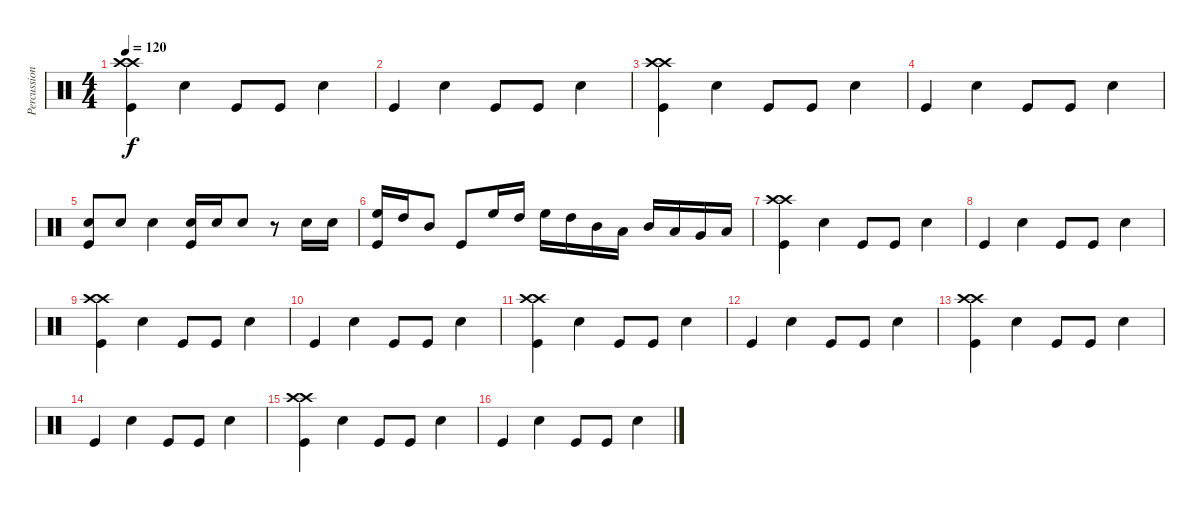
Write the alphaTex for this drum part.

\track ("Percussion" "Percussion") {instrument percussion}
\staff {score}
\articulation defaults
\ts (4 4)
\tempo 120
\clef neutral
\ks c
("Crash high (hit)" "Crash high (hit)" "Kick (hit)").4{dy f} "Snare (hit) 2".4 "Kick (hit)".8 "Kick (hit)".8 "Snare (hit) 2".4 |
"Kick (hit)".4 "Snare (hit) 2".4 "Kick (hit)".8 "Kick (hit)".8 "Snare (hit) 2".4 |
("Crash high (hit)" "Crash high (hit)" "Kick (hit)").4 "Snare (hit) 2".4 "Kick (hit)".8 "Kick (hit)".8 "Snare (hit) 2".4 |
"Kick (hit)".4 "Snare (hit) 2".4 "Kick (hit)".8 "Kick (hit)".8 "Snare (hit) 2".4 |
("Snare (hit) 2" "Kick (hit)").8 "Snare (hit) 2".8 "Snare (hit) 2".4 ("Snare (hit) 2" "Kick (hit)").16 "Snare (hit) 2".16 "Snare (hit) 2".8 r.8 "Snare (hit) 2".16 "Snare (hit) 2".16 |
("High Floor Tom (hit)" "Kick (hit)").16 "High Tom (hit)".16 "Mid Tom (hit)".8 "Kick (hit)".8 "High Floor Tom (hit)".16 "High Tom (hit)".16 "High Floor Tom (hit)".16 "High Tom (hit)".16 "Mid Tom (hit)".16 "Low Tom (hit)".16 "Mid Tom (hit)".16 "Low Tom (hit)".16 "Very Low Tom (hit)".16 "Low Floor Tom (hit)".16 |
("Crash high (hit)" "Crash high (hit)" "Kick (hit)").4 "Snare (hit) 2".4 "Kick (hit)".8 "Kick (hit)".8 "Snare (hit) 2".4 |
"Kick (hit)".4 "Snare (hit) 2".4 "Kick (hit)".8 "Kick (hit)".8 "Snare (hit) 2".4 |
("Crash high (hit)" "Crash high (hit)" "Kick (hit)").4 "Snare (hit) 2".4 "Kick (hit)".8 "Kick (hit)".8 "Snare (hit) 2".4 |
"Kick (hit)".4 "Snare (hit) 2".4 "Kick (hit)".8 "Kick (hit)".8 "Snare (hit) 2".4 |
("Crash high (hit)" "Crash high (hit)" "Kick (hit)").4 "Snare (hit) 2".4 "Kick (hit)".8 "Kick (hit)".8 "Snare (hit) 2".4 |
"Kick (hit)".4 "Snare (hit) 2".4 "Kick (hit)".8 "Kick (hit)".8 "Snare (hit) 2".4 |
("Crash high (hit)" "Crash high (hit)" "Kick (hit)").4 "Snare (hit) 2".4 "Kick (hit)".8 "Kick (hit)".8 "Snare (hit) 2".4 |
"Kick (hit)".4 "Snare (hit) 2".4 "Kick (hit)".8 "Kick (hit)".8 "Snare (hit) 2".4 |
("Crash high (hit)" "Crash high (hit)" "Kick (hit)").4 "Snare (hit) 2".4 "Kick (hit)".8 "Kick (hit)".8 "Snare (hit) 2".4 |
"Kick (hit)".4 "Snare (hit) 2".4 "Kick (hit)".8 "Kick (hit)".8 "Snare (hit) 2".4
